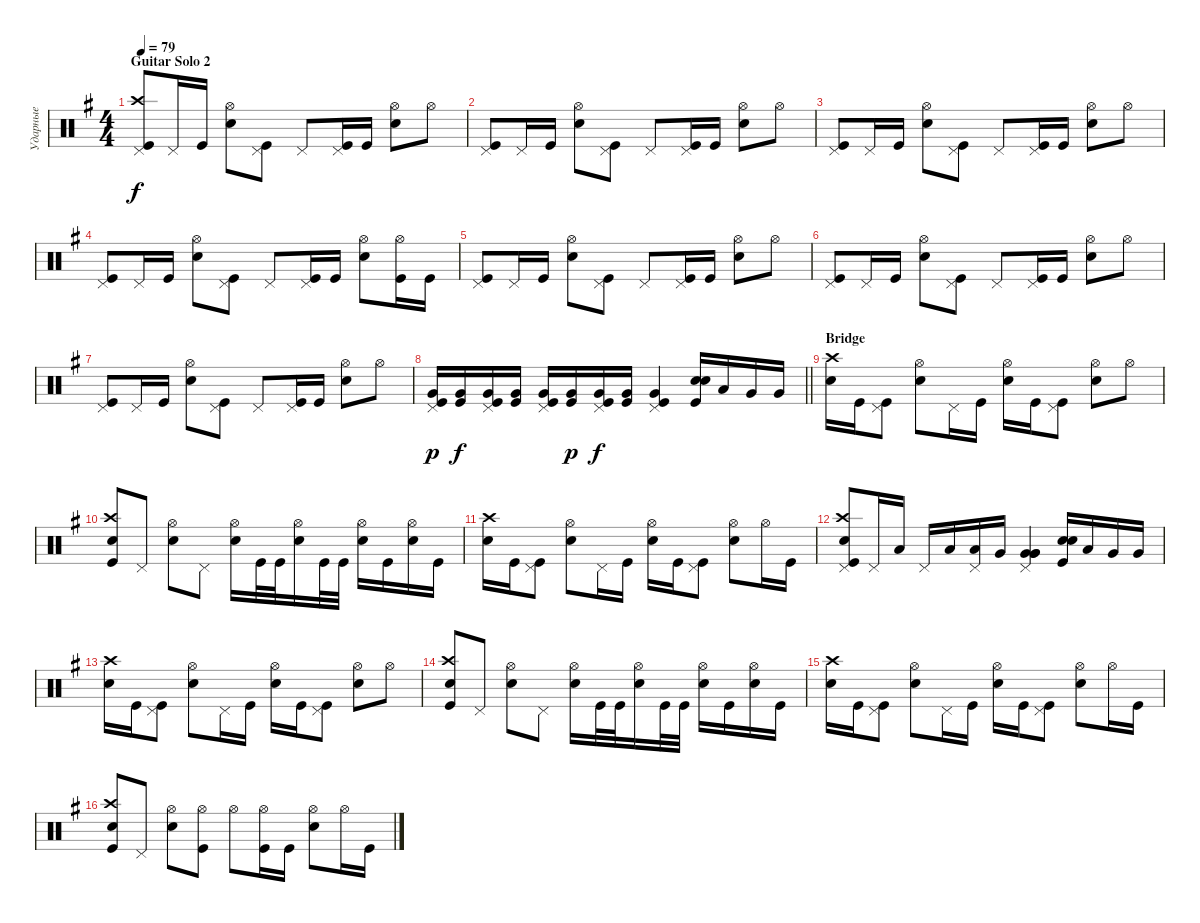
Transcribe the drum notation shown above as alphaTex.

\track ("Ударные" "Ударные") {instrument percussion}
\staff {score}
\articulation defaults
\ts (4 4)
\section ("" "Guitar Solo 2")
\tempo 79
\clef neutral
\ks eminor
("Kick (hit)" "Crash high (hit)" "Pedal Hi-Hat (hit)").8{dy f} "Pedal Hi-Hat (hit)".16 "Kick (hit)".16 ("Snare (hit) 2" "Hi-Hat (open)").8 ("Kick (hit)" "Pedal Hi-Hat (hit)").8 "Pedal Hi-Hat (hit)".8 ("Kick (hit)" "Pedal Hi-Hat (hit)").16 "Kick (hit)".16 ("Hi-Hat (open)" "Snare (hit) 2").8 "Hi-Hat (open)".8 |
("Kick (hit)" "Pedal Hi-Hat (hit)").8 "Pedal Hi-Hat (hit)".16 "Kick (hit)".16 ("Snare (hit) 2" "Hi-Hat (open)").8 ("Kick (hit)" "Pedal Hi-Hat (hit)").8 "Pedal Hi-Hat (hit)".8 ("Kick (hit)" "Pedal Hi-Hat (hit)").16 "Kick (hit)".16 ("Hi-Hat (open)" "Snare (hit) 2").8 "Hi-Hat (open)".8 |
("Kick (hit)" "Pedal Hi-Hat (hit)").8 "Pedal Hi-Hat (hit)".16 "Kick (hit)".16 ("Snare (hit) 2" "Hi-Hat (open)").8 ("Kick (hit)" "Pedal Hi-Hat (hit)").8 "Pedal Hi-Hat (hit)".8 ("Kick (hit)" "Pedal Hi-Hat (hit)").16 "Kick (hit)".16 ("Hi-Hat (open)" "Snare (hit) 2").8 "Hi-Hat (open)".8 |
("Kick (hit)" "Pedal Hi-Hat (hit)").8 "Pedal Hi-Hat (hit)".16 "Kick (hit)".16 ("Snare (hit) 2" "Hi-Hat (open)").8 ("Kick (hit)" "Pedal Hi-Hat (hit)").8 "Pedal Hi-Hat (hit)".8 ("Kick (hit)" "Pedal Hi-Hat (hit)").16 "Kick (hit)".16 ("Hi-Hat (open)" "Snare (hit) 2").8 ("Hi-Hat (open)" "Kick (hit)").16 "Kick (hit)".16 |
("Kick (hit)" "Pedal Hi-Hat (hit)").8 "Pedal Hi-Hat (hit)".16 "Kick (hit)".16 ("Snare (hit) 2" "Hi-Hat (open)").8 ("Kick (hit)" "Pedal Hi-Hat (hit)").8 "Pedal Hi-Hat (hit)".8 ("Kick (hit)" "Pedal Hi-Hat (hit)").16 "Kick (hit)".16 ("Hi-Hat (open)" "Snare (hit) 2").8 "Hi-Hat (open)".8 |
("Kick (hit)" "Pedal Hi-Hat (hit)").8 "Pedal Hi-Hat (hit)".16 "Kick (hit)".16 ("Snare (hit) 2" "Hi-Hat (open)").8 ("Kick (hit)" "Pedal Hi-Hat (hit)").8 "Pedal Hi-Hat (hit)".8 ("Kick (hit)" "Pedal Hi-Hat (hit)").16 "Kick (hit)".16 ("Hi-Hat (open)" "Snare (hit) 2").8 "Hi-Hat (open)".8 |
("Kick (hit)" "Pedal Hi-Hat (hit)").8 "Pedal Hi-Hat (hit)".16 "Kick (hit)".16 ("Snare (hit) 2" "Hi-Hat (open)").8 ("Kick (hit)" "Pedal Hi-Hat (hit)").8 "Pedal Hi-Hat (hit)".8 ("Kick (hit)" "Pedal Hi-Hat (hit)").16 "Kick (hit)".16 ("Hi-Hat (open)" "Snare (hit) 2").8 "Hi-Hat (open)".8 |
\barLineRight lightlight
("Kick (hit)" "Very Low Tom (hit)" "Pedal Hi-Hat (hit)").16{dy p} ("Kick (hit)" "Very Low Tom (hit)").16{dy f} ("Kick (hit)" "Very Low Tom (hit)" "Pedal Hi-Hat (hit)").16 ("Kick (hit)" "Very Low Tom (hit)").16 ("Pedal Hi-Hat (hit)" "Kick (hit)" "Very Low Tom (hit)").16 ("Kick (hit)" "Very Low Tom (hit)").16{dy p} ("Kick (hit)" "Very Low Tom (hit)" "Pedal Hi-Hat (hit)").16{dy f} ("Kick (hit)" "Very Low Tom (hit)").16 ("Kick (hit)" "Very Low Tom (hit)" "Pedal Hi-Hat (hit)").4 ("Kick (hit)" "Snare (hit) 2" "Snare (hit) 2").16{bd 240} "Low Tom (hit)".16 "Very Low Tom (hit)".16 "Very Low Tom (hit)".16 |
\section ("" "Bridge")
("Snare (hit) 2" "Crash high (hit)").16 "Kick (hit)".16 ("Kick (hit)" "Pedal Hi-Hat (hit)").8 ("Snare (hit) 2" "Hi-Hat (open)").8 "Pedal Hi-Hat (hit)".16 "Kick (hit)".16 ("Snare (hit) 2" "Hi-Hat (open)").16 "Kick (hit)".16 ("Kick (hit)" "Pedal Hi-Hat (hit)").8 ("Snare (hit) 2" "Hi-Hat (open)").8 "Hi-Hat (open)".8 |
("Snare (hit) 2" "Kick (hit)" "Crash high (hit)").8 "Pedal Hi-Hat (hit)".8 ("Snare (hit) 2" "Hi-Hat (open)").8 "Pedal Hi-Hat (hit)".8 ("Snare (hit) 2" "Hi-Hat (open)").16 "Kick (hit)".32 "Kick (hit)".32 ("Snare (hit) 2" "Hi-Hat (open)").16 "Kick (hit)".32 "Kick (hit)".32 ("Snare (hit) 2" "Hi-Hat (open)").16 "Kick (hit)".16 ("Snare (hit) 2" "Hi-Hat (open)").16 "Kick (hit)".16 |
("Snare (hit) 2" "Crash high (hit)").16 "Kick (hit)".16 ("Kick (hit)" "Pedal Hi-Hat (hit)").8 ("Snare (hit) 2" "Hi-Hat (open)").8 "Pedal Hi-Hat (hit)".16 "Kick (hit)".16 ("Snare (hit) 2" "Hi-Hat (open)").16 "Kick (hit)".16 ("Kick (hit)" "Pedal Hi-Hat (hit)").8 ("Snare (hit) 2" "Hi-Hat (open)").8 "Hi-Hat (open)".16 "Kick (hit)".16 |
("Snare (hit) 2" "Crash high (hit)" "Pedal Hi-Hat (hit)" "Kick (hit)").8 "Pedal Hi-Hat (hit)".16 "Low Tom (hit)".16 "Pedal Hi-Hat (hit)".16 "Low Tom (hit)".16 ("Pedal Hi-Hat (hit)" "Low Tom (hit)").16 "Very Low Tom (hit)".16 ("Very Low Tom (hit)" "Very Low Tom (hit)" "Pedal Hi-Hat (hit)" "Very Low Tom (hit)").4{bd 60} ("Kick (hit)" "Snare (hit) 2" "Snare (hit) 2").16{bd 240} "Low Tom (hit)".16 "Very Low Tom (hit)".16 "Very Low Tom (hit)".16 |
("Snare (hit) 2" "Crash high (hit)").16 "Kick (hit)".16 ("Kick (hit)" "Pedal Hi-Hat (hit)").8 ("Snare (hit) 2" "Hi-Hat (open)").8 "Pedal Hi-Hat (hit)".16 "Kick (hit)".16 ("Snare (hit) 2" "Hi-Hat (open)").16 "Kick (hit)".16 ("Kick (hit)" "Pedal Hi-Hat (hit)").8 ("Snare (hit) 2" "Hi-Hat (open)").8 "Hi-Hat (open)".8 |
("Snare (hit) 2" "Kick (hit)" "Crash high (hit)").8 "Pedal Hi-Hat (hit)".8 ("Snare (hit) 2" "Hi-Hat (open)").8 "Pedal Hi-Hat (hit)".8 ("Snare (hit) 2" "Hi-Hat (open)").16 "Kick (hit)".32 "Kick (hit)".32 ("Snare (hit) 2" "Hi-Hat (open)").16 "Kick (hit)".32 "Kick (hit)".32 ("Snare (hit) 2" "Hi-Hat (open)").16 "Kick (hit)".16 ("Snare (hit) 2" "Hi-Hat (open)").16 "Kick (hit)".16 |
("Snare (hit) 2" "Crash high (hit)").16 "Kick (hit)".16 ("Kick (hit)" "Pedal Hi-Hat (hit)").8 ("Snare (hit) 2" "Hi-Hat (open)").8 "Pedal Hi-Hat (hit)".16 "Kick (hit)".16 ("Snare (hit) 2" "Hi-Hat (open)").16 "Kick (hit)".16 ("Kick (hit)" "Pedal Hi-Hat (hit)").8 ("Snare (hit) 2" "Hi-Hat (open)").8 "Hi-Hat (open)".16 "Kick (hit)".16 |
("Snare (hit) 2" "Crash high (hit)" "Kick (hit)").8 "Pedal Hi-Hat (hit)".8 ("Snare (hit) 2" "Hi-Hat (open)").8 ("Hi-Hat (open)" "Kick (hit)").8 "Hi-Hat (open)".8 ("Kick (hit)" "Hi-Hat (open)").16 "Kick (hit)".16 ("Hi-Hat (open)" "Snare (hit) 2").8 "Hi-Hat (open)".16 "Kick (hit)".16
